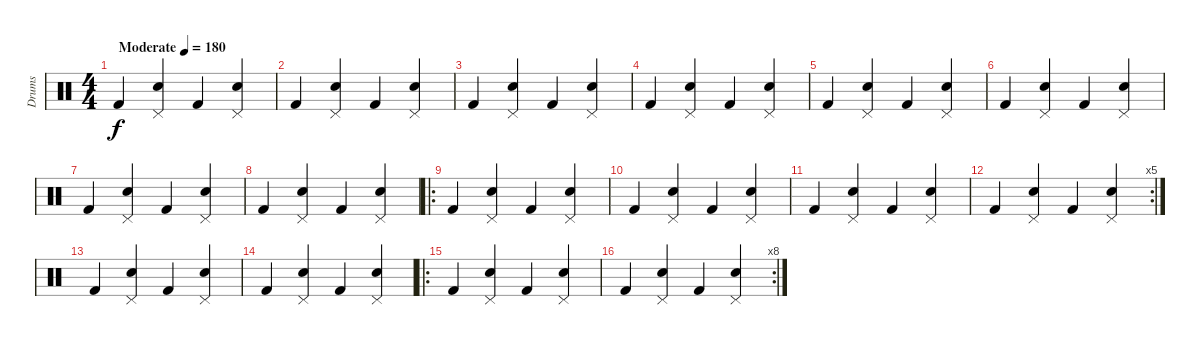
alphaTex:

\track ("Drums" "Drums") {instrument percussion}
\staff {score}
\articulation defaults
\ts (4 4)
\tempo (180 "Moderate")
\clef neutral
\ks c "Kick (hit) 2".4{dy f}
("Pedal Hi-Hat (hit)" "Electric Snare (hit)").4 "Kick (hit) 2".4 ("Pedal Hi-Hat (hit)" "Electric Snare (hit)").4 |
"Kick (hit) 2".4 ("Pedal Hi-Hat (hit)" "Electric Snare (hit)").4 "Kick (hit) 2".4 ("Pedal Hi-Hat (hit)" "Electric Snare (hit)").4 |
"Kick (hit) 2".4 ("Pedal Hi-Hat (hit)" "Electric Snare (hit)").4 "Kick (hit) 2".4 ("Pedal Hi-Hat (hit)" "Electric Snare (hit)").4 |
"Kick (hit) 2".4 ("Pedal Hi-Hat (hit)" "Electric Snare (hit)").4 "Kick (hit) 2".4 ("Pedal Hi-Hat (hit)" "Electric Snare (hit)").4 |
"Kick (hit) 2".4 ("Pedal Hi-Hat (hit)" "Electric Snare (hit)").4 "Kick (hit) 2".4 ("Pedal Hi-Hat (hit)" "Electric Snare (hit)").4 |
"Kick (hit) 2".4 ("Pedal Hi-Hat (hit)" "Electric Snare (hit)").4 "Kick (hit) 2".4 ("Pedal Hi-Hat (hit)" "Electric Snare (hit)").4 |
"Kick (hit) 2".4 ("Pedal Hi-Hat (hit)" "Electric Snare (hit)").4 "Kick (hit) 2".4 ("Pedal Hi-Hat (hit)" "Electric Snare (hit)").4 |
"Kick (hit) 2".4 ("Pedal Hi-Hat (hit)" "Electric Snare (hit)").4 "Kick (hit) 2".4 ("Pedal Hi-Hat (hit)" "Electric Snare (hit)").4 |
\ro "Kick (hit) 2".4
("Pedal Hi-Hat (hit)" "Electric Snare (hit)").4 "Kick (hit) 2".4 ("Pedal Hi-Hat (hit)" "Electric Snare (hit)").4 |
"Kick (hit) 2".4 ("Pedal Hi-Hat (hit)" "Electric Snare (hit)").4 "Kick (hit) 2".4 ("Pedal Hi-Hat (hit)" "Electric Snare (hit)").4 |
"Kick (hit) 2".4 ("Pedal Hi-Hat (hit)" "Electric Snare (hit)").4 "Kick (hit) 2".4 ("Pedal Hi-Hat (hit)" "Electric Snare (hit)").4 |
\rc 5 "Kick (hit) 2".4
("Pedal Hi-Hat (hit)" "Electric Snare (hit)").4 "Kick (hit) 2".4 ("Pedal Hi-Hat (hit)" "Electric Snare (hit)").4 |
"Kick (hit) 2".4 ("Pedal Hi-Hat (hit)" "Electric Snare (hit)").4 "Kick (hit) 2".4 ("Pedal Hi-Hat (hit)" "Electric Snare (hit)").4 |
"Kick (hit) 2".4 ("Pedal Hi-Hat (hit)" "Electric Snare (hit)").4 "Kick (hit) 2".4 ("Pedal Hi-Hat (hit)" "Electric Snare (hit)").4 |
\ro "Kick (hit) 2".4
("Pedal Hi-Hat (hit)" "Electric Snare (hit)").4 "Kick (hit) 2".4 ("Pedal Hi-Hat (hit)" "Electric Snare (hit)").4 |
\rc 8 "Kick (hit) 2".4
("Pedal Hi-Hat (hit)" "Electric Snare (hit)").4 "Kick (hit) 2".4 ("Pedal Hi-Hat (hit)" "Electric Snare (hit)").4
